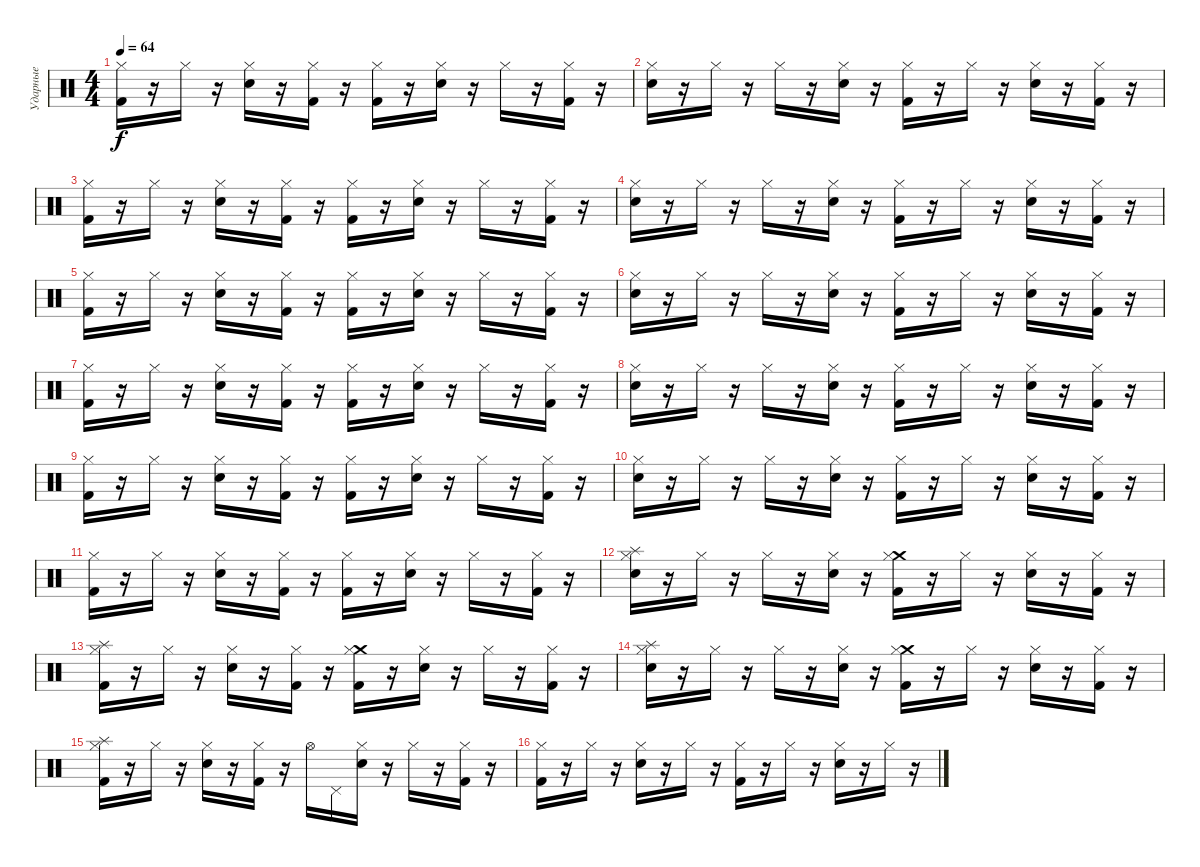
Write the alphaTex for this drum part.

\track ("Ударные" "Ударные") {instrument percussion}
\staff {score}
\articulation defaults
\ts (4 4)
\tempo 64
\clef neutral
\ks c
("Hi-Hat (closed)" "Kick (hit) 2").16{dy f} r.16 "Hi-Hat (closed)".16 r.16 ("Hi-Hat (closed)" "Snare (hit) 2").16 r.16 ("Hi-Hat (closed)" "Kick (hit) 2").16 r.16 ("Hi-Hat (closed)" "Kick (hit) 2").16 r.16 ("Hi-Hat (closed)" "Snare (hit) 2").16 r.16 "Hi-Hat (closed)".16 r.16 ("Hi-Hat (closed)" "Kick (hit) 2").16 r.16 |
("Hi-Hat (closed)" "Snare (hit) 2").16 r.16 "Hi-Hat (closed)".16 r.16 "Hi-Hat (closed)".16 r.16 ("Hi-Hat (closed)" "Snare (hit) 2").16 r.16 ("Hi-Hat (closed)" "Kick (hit) 2").16 r.16 "Hi-Hat (closed)".16 r.16 ("Hi-Hat (closed)" "Snare (hit) 2").16 r.16 ("Hi-Hat (closed)" "Kick (hit) 2").16 r.16 |
("Hi-Hat (closed)" "Kick (hit) 2").16 r.16 "Hi-Hat (closed)".16 r.16 ("Hi-Hat (closed)" "Snare (hit) 2").16 r.16 ("Hi-Hat (closed)" "Kick (hit) 2").16 r.16 ("Hi-Hat (closed)" "Kick (hit) 2").16 r.16 ("Hi-Hat (closed)" "Snare (hit) 2").16 r.16 "Hi-Hat (closed)".16 r.16 ("Hi-Hat (closed)" "Kick (hit) 2").16 r.16 |
\section ("" "")
("Hi-Hat (closed)" "Snare (hit) 2").16 r.16 "Hi-Hat (closed)".16 r.16 "Hi-Hat (closed)".16 r.16 ("Hi-Hat (closed)" "Snare (hit) 2").16 r.16 ("Hi-Hat (closed)" "Kick (hit) 2").16 r.16 "Hi-Hat (closed)".16 r.16 ("Hi-Hat (closed)" "Snare (hit) 2").16 r.16 ("Hi-Hat (closed)" "Kick (hit) 2").16 r.16 |
("Hi-Hat (closed)" "Kick (hit) 2").16 r.16 "Hi-Hat (closed)".16 r.16 ("Hi-Hat (closed)" "Snare (hit) 2").16 r.16 ("Hi-Hat (closed)" "Kick (hit) 2").16 r.16 ("Hi-Hat (closed)" "Kick (hit) 2").16 r.16 ("Hi-Hat (closed)" "Snare (hit) 2").16 r.16 "Hi-Hat (closed)".16 r.16 ("Hi-Hat (closed)" "Kick (hit) 2").16 r.16 |
("Hi-Hat (closed)" "Snare (hit) 2").16 r.16 "Hi-Hat (closed)".16 r.16 "Hi-Hat (closed)".16 r.16 ("Hi-Hat (closed)" "Snare (hit) 2").16 r.16 ("Hi-Hat (closed)" "Kick (hit) 2").16 r.16 "Hi-Hat (closed)".16 r.16 ("Hi-Hat (closed)" "Snare (hit) 2").16 r.16 ("Hi-Hat (closed)" "Kick (hit) 2").16 r.16 |
("Hi-Hat (closed)" "Kick (hit) 2").16 r.16 "Hi-Hat (closed)".16 r.16 ("Hi-Hat (closed)" "Snare (hit) 2").16 r.16 ("Hi-Hat (closed)" "Kick (hit) 2").16 r.16 ("Hi-Hat (closed)" "Kick (hit) 2").16 r.16 ("Hi-Hat (closed)" "Snare (hit) 2").16 r.16 "Hi-Hat (closed)".16 r.16 ("Hi-Hat (closed)" "Kick (hit) 2").16 r.16 |
("Hi-Hat (closed)" "Snare (hit) 2").16 r.16 "Hi-Hat (closed)".16 r.16 "Hi-Hat (closed)".16 r.16 ("Hi-Hat (closed)" "Snare (hit) 2").16 r.16 ("Hi-Hat (closed)" "Kick (hit) 2").16 r.16 "Hi-Hat (closed)".16 r.16 ("Hi-Hat (closed)" "Snare (hit) 2").16 r.16 ("Hi-Hat (closed)" "Kick (hit) 2").16 r.16 |
("Hi-Hat (closed)" "Kick (hit) 2").16 r.16 "Hi-Hat (closed)".16 r.16 ("Hi-Hat (closed)" "Snare (hit) 2").16 r.16 ("Hi-Hat (closed)" "Kick (hit) 2").16 r.16 ("Hi-Hat (closed)" "Kick (hit) 2").16 r.16 ("Hi-Hat (closed)" "Snare (hit) 2").16 r.16 "Hi-Hat (closed)".16 r.16 ("Hi-Hat (closed)" "Kick (hit) 2").16 r.16 |
("Hi-Hat (closed)" "Snare (hit) 2").16 r.16 "Hi-Hat (closed)".16 r.16 "Hi-Hat (closed)".16 r.16 ("Hi-Hat (closed)" "Snare (hit) 2").16 r.16 ("Hi-Hat (closed)" "Kick (hit) 2").16 r.16 "Hi-Hat (closed)".16 r.16 ("Hi-Hat (closed)" "Snare (hit) 2").16 r.16 ("Hi-Hat (closed)" "Kick (hit) 2").16 r.16 |
("Hi-Hat (closed)" "Kick (hit) 2").16 r.16 "Hi-Hat (closed)".16 r.16 ("Hi-Hat (closed)" "Snare (hit) 2").16 r.16 ("Hi-Hat (closed)" "Kick (hit) 2").16 r.16 ("Hi-Hat (closed)" "Kick (hit) 2").16 r.16 ("Hi-Hat (closed)" "Snare (hit) 2").16 r.16 "Hi-Hat (closed)".16 r.16 ("Hi-Hat (closed)" "Kick (hit) 2").16 r.16 |
\section ("" "")
("Splash (hit)" "Hi-Hat (closed)" "Snare (hit) 2").16 r.16 "Hi-Hat (closed)".16 r.16 "Hi-Hat (closed)".16 r.16 ("Hi-Hat (closed)" "Snare (hit) 2").16 r.16 ("Crash medium (hit)" "Hi-Hat (closed)" "Kick (hit) 2").16 r.16 "Hi-Hat (closed)".16 r.16 ("Hi-Hat (closed)" "Snare (hit) 2").16 r.16 ("Hi-Hat (closed)" "Kick (hit) 2").16 r.16 |
("Splash (hit)" "Hi-Hat (closed)" "Kick (hit) 2").16 r.16 "Hi-Hat (closed)".16 r.16 ("Hi-Hat (closed)" "Snare (hit) 2").16 r.16 ("Hi-Hat (closed)" "Kick (hit) 2").16 r.16 ("Crash medium (hit)" "Hi-Hat (closed)" "Kick (hit) 2").16 r.16 ("Hi-Hat (closed)" "Snare (hit) 2").16 r.16 "Hi-Hat (closed)".16 r.16 ("Hi-Hat (closed)" "Kick (hit) 2").16 r.16 |
("Splash (hit)" "Hi-Hat (closed)" "Snare (hit) 2").16 r.16 "Hi-Hat (closed)".16 r.16 "Hi-Hat (closed)".16 r.16 ("Hi-Hat (closed)" "Snare (hit) 2").16 r.16 ("Crash medium (hit)" "Hi-Hat (closed)" "Kick (hit) 2").16 r.16 "Hi-Hat (closed)".16 r.16 ("Hi-Hat (closed)" "Snare (hit) 2").16 r.16 ("Hi-Hat (closed)" "Kick (hit) 2").16 r.16 |
("Splash (hit)" "Hi-Hat (closed)" "Kick (hit) 2").16 r.16 "Hi-Hat (closed)".16 r.16 ("Hi-Hat (closed)" "Snare (hit) 2").16 r.16 ("Hi-Hat (closed)" "Kick (hit) 2").16 r.16 "Hi-Hat (open)".16 "Pedal Hi-Hat (hit)".16 ("Hi-Hat (closed)" "Snare (hit) 2").16 r.16 "Hi-Hat (closed)".16 r.16 ("Hi-Hat (closed)" "Kick (hit) 2").16 r.16 |
\section ("" "")
("Hi-Hat (closed)" "Kick (hit) 2").16 r.16 "Hi-Hat (closed)".16 r.16 ("Hi-Hat (closed)" "Electric Snare (hit)").16 r.16 "Hi-Hat (closed)".16 r.16 ("Hi-Hat (closed)" "Kick (hit) 2").16 r.16 "Hi-Hat (closed)".16 r.16 ("Hi-Hat (closed)" "Electric Snare (hit)").16 r.16 "Hi-Hat (closed)".16 r.16
